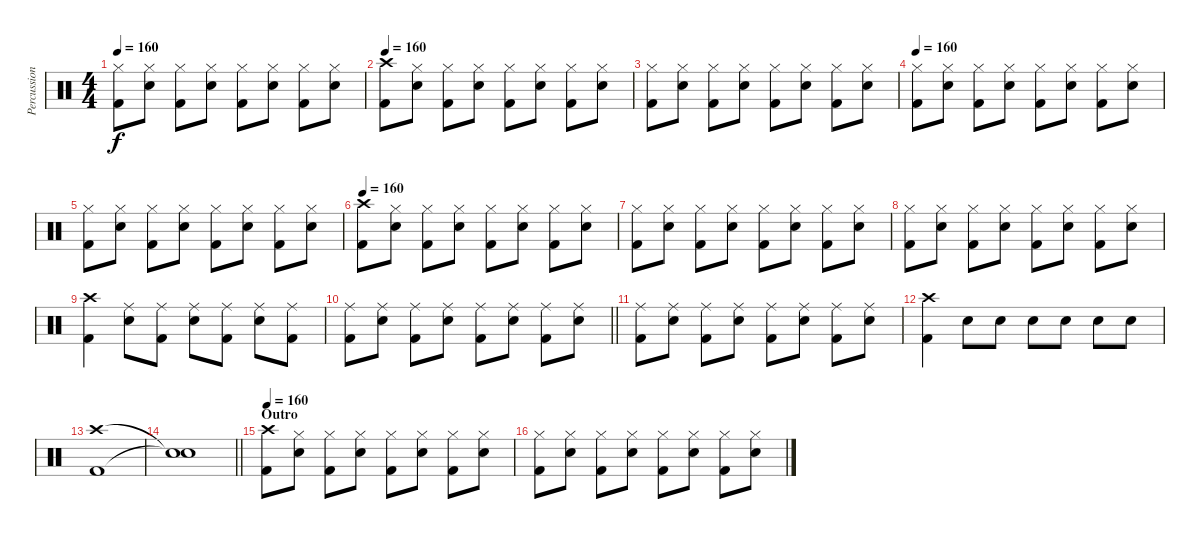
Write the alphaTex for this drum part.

\track ("Percussion" "Percussion") {instrument percussion}
\staff {score}
\articulation defaults
\ts (4 4)
\tempo 160
\clef neutral
\ks c
("Hi-Hat (closed)" "Kick (hit) 2").8{dy f} ("Hi-Hat (closed)" "Snare (hit) 2").8 ("Hi-Hat (closed)" "Kick (hit) 2").8 ("Hi-Hat (closed)" "Snare (hit) 2").8 ("Hi-Hat (closed)" "Kick (hit) 2").8 ("Hi-Hat (closed)" "Snare (hit) 2").8 ("Hi-Hat (closed)" "Kick (hit) 2").8 ("Hi-Hat (closed)" "Snare (hit) 2").8 |
\tempo 160
("Crash high (hit)" "Kick (hit) 2").8 ("Hi-Hat (closed)" "Snare (hit) 2").8 ("Hi-Hat (closed)" "Kick (hit) 2").8 ("Hi-Hat (closed)" "Snare (hit) 2").8 ("Hi-Hat (closed)" "Kick (hit) 2").8 ("Hi-Hat (closed)" "Snare (hit) 2").8 ("Hi-Hat (closed)" "Kick (hit) 2").8 ("Hi-Hat (closed)" "Snare (hit) 2").8 |
("Hi-Hat (closed)" "Kick (hit) 2").8 ("Hi-Hat (closed)" "Snare (hit) 2").8 ("Hi-Hat (closed)" "Kick (hit) 2").8 ("Hi-Hat (closed)" "Snare (hit) 2").8 ("Hi-Hat (closed)" "Kick (hit) 2").8 ("Hi-Hat (closed)" "Snare (hit) 2").8 ("Hi-Hat (closed)" "Kick (hit) 2").8 ("Hi-Hat (closed)" "Snare (hit) 2").8 |
\tempo 160
("Hi-Hat (closed)" "Kick (hit) 2").8 ("Hi-Hat (closed)" "Snare (hit) 2").8 ("Hi-Hat (closed)" "Kick (hit) 2").8 ("Hi-Hat (closed)" "Snare (hit) 2").8 ("Hi-Hat (closed)" "Kick (hit) 2").8 ("Hi-Hat (closed)" "Snare (hit) 2").8 ("Hi-Hat (closed)" "Kick (hit) 2").8 ("Hi-Hat (closed)" "Snare (hit) 2").8 |
("Hi-Hat (closed)" "Kick (hit) 2").8 ("Hi-Hat (closed)" "Snare (hit) 2").8 ("Hi-Hat (closed)" "Kick (hit) 2").8 ("Hi-Hat (closed)" "Snare (hit) 2").8 ("Hi-Hat (closed)" "Kick (hit) 2").8 ("Hi-Hat (closed)" "Snare (hit) 2").8 ("Hi-Hat (closed)" "Kick (hit) 2").8 ("Hi-Hat (closed)" "Snare (hit) 2").8 |
\tempo 160
("Crash high (hit)" "Kick (hit) 2").8 ("Hi-Hat (closed)" "Snare (hit) 2").8 ("Hi-Hat (closed)" "Kick (hit) 2").8 ("Hi-Hat (closed)" "Snare (hit) 2").8 ("Hi-Hat (closed)" "Kick (hit) 2").8 ("Hi-Hat (closed)" "Snare (hit) 2").8 ("Hi-Hat (closed)" "Kick (hit) 2").8 ("Hi-Hat (closed)" "Snare (hit) 2").8 |
("Hi-Hat (closed)" "Kick (hit) 2").8 ("Hi-Hat (closed)" "Snare (hit) 2").8 ("Hi-Hat (closed)" "Kick (hit) 2").8 ("Hi-Hat (closed)" "Snare (hit) 2").8 ("Hi-Hat (closed)" "Kick (hit) 2").8 ("Hi-Hat (closed)" "Snare (hit) 2").8 ("Hi-Hat (closed)" "Kick (hit) 2").8 ("Hi-Hat (closed)" "Snare (hit) 2").8 |
("Hi-Hat (closed)" "Kick (hit) 2").8 ("Hi-Hat (closed)" "Snare (hit) 2").8 ("Hi-Hat (closed)" "Kick (hit) 2").8 ("Hi-Hat (closed)" "Snare (hit) 2").8 ("Hi-Hat (closed)" "Kick (hit) 2").8 ("Hi-Hat (closed)" "Snare (hit) 2").8 ("Hi-Hat (closed)" "Kick (hit) 2").8 ("Hi-Hat (closed)" "Snare (hit) 2").8 |
("Crash high (hit)" "Kick (hit) 2").4 ("Ride (middle)" "Snare (hit) 2").8 ("Ride (middle)" "Kick (hit) 2").8 ("Ride (middle)" "Snare (hit) 2").8 ("Ride (middle)" "Kick (hit) 2").8 ("Ride (middle)" "Snare (hit) 2").8 ("Ride (middle)" "Kick (hit) 2").8 |
\barLineRight lightlight
("Ride (middle)" "Kick (hit) 2").8 ("Ride (middle)" "Snare (hit) 2").8 ("Ride (middle)" "Kick (hit) 2").8 ("Ride (middle)" "Snare (hit) 2").8 ("Ride (middle)" "Kick (hit) 2").8 ("Ride (middle)" "Snare (hit) 2").8 ("Ride (middle)" "Kick (hit) 2").8 ("Ride (middle)" "Snare (hit) 2").8 |
("Ride (middle)" "Kick (hit) 2").8 ("Ride (middle)" "Snare (hit) 2").8 ("Ride (middle)" "Kick (hit) 2").8 ("Ride (middle)" "Snare (hit) 2").8 ("Ride (middle)" "Kick (hit) 2").8 ("Ride (middle)" "Snare (hit) 2").8 ("Ride (middle)" "Kick (hit) 2").8 ("Ride (middle)" "Snare (hit) 2").8 |
("Crash high (hit)" "Kick (hit) 2").4 "Snare (hit) 2".8 "Snare (hit) 2".8 "Snare (hit) 2".8 "Snare (hit) 2".8 "Snare (hit) 2".8 "Snare (hit) 2".8 |
("Crash high (hit)" "Kick (hit) 2").1 |
\barLineRight lightlight
("Snare (hit)"{t} "Snare (hit)"{t}).1 |
\section ("" "Outro")
\tempo 160
("Crash high (hit)" "Kick (hit) 2").8 ("Hi-Hat (closed)" "Snare (hit) 2").8 ("Hi-Hat (closed)" "Kick (hit) 2").8 ("Hi-Hat (closed)" "Snare (hit) 2").8 ("Hi-Hat (closed)" "Kick (hit) 2").8 ("Hi-Hat (closed)" "Snare (hit) 2").8 ("Hi-Hat (closed)" "Kick (hit) 2").8 ("Hi-Hat (closed)" "Snare (hit) 2").8 |
("Hi-Hat (closed)" "Kick (hit) 2").8 ("Hi-Hat (closed)" "Snare (hit) 2").8 ("Hi-Hat (closed)" "Kick (hit) 2").8 ("Hi-Hat (closed)" "Snare (hit) 2").8 ("Hi-Hat (closed)" "Kick (hit) 2").8 ("Hi-Hat (closed)" "Snare (hit) 2").8 ("Hi-Hat (closed)" "Kick (hit) 2").8 ("Hi-Hat (closed)" "Snare (hit) 2").8
